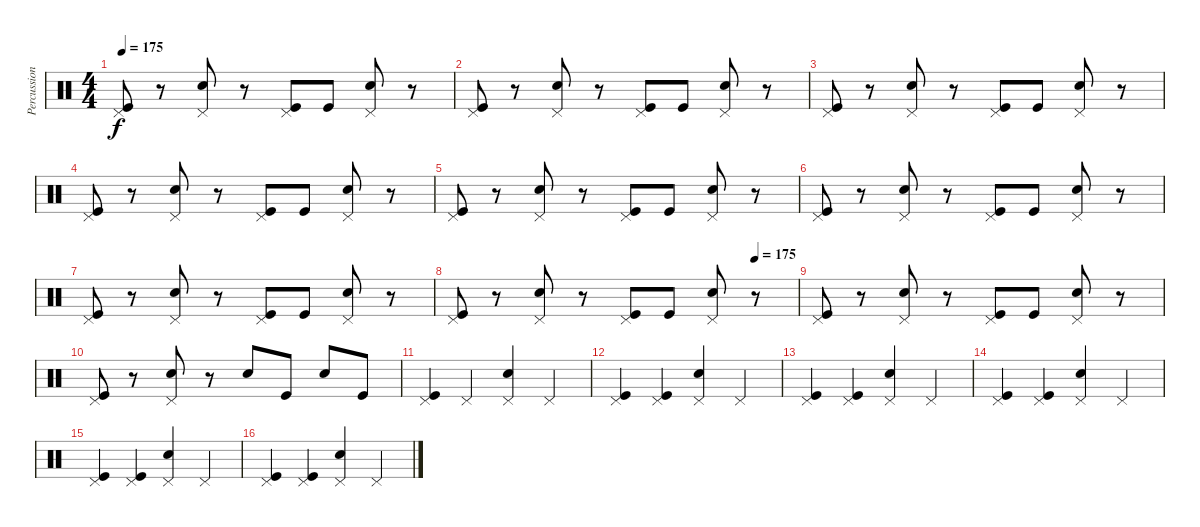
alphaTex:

\track ("Percussion" "Percussion") {instrument percussion}
\staff {score}
\articulation defaults
\ts (4 4)
\tempo 175
\clef neutral
\ks c
("Pedal Hi-Hat (hit)" "Kick (hit)").8{dy f} r.8 ("Pedal Hi-Hat (hit)" "Electric Snare (hit)").8 r.8 ("Pedal Hi-Hat (hit)" "Kick (hit)").8 "Kick (hit)".8 ("Pedal Hi-Hat (hit)" "Electric Snare (hit)").8 r.8 |
("Pedal Hi-Hat (hit)" "Kick (hit)").8 r.8 ("Pedal Hi-Hat (hit)" "Electric Snare (hit)").8 r.8 ("Pedal Hi-Hat (hit)" "Kick (hit)").8 "Kick (hit)".8 ("Pedal Hi-Hat (hit)" "Electric Snare (hit)").8 r.8 |
("Pedal Hi-Hat (hit)" "Kick (hit)").8 r.8 ("Pedal Hi-Hat (hit)" "Electric Snare (hit)").8 r.8 ("Pedal Hi-Hat (hit)" "Kick (hit)").8 "Kick (hit)".8 ("Pedal Hi-Hat (hit)" "Electric Snare (hit)").8 r.8 |
("Pedal Hi-Hat (hit)" "Kick (hit)").8 r.8 ("Pedal Hi-Hat (hit)" "Electric Snare (hit)").8 r.8 ("Pedal Hi-Hat (hit)" "Kick (hit)").8 "Kick (hit)".8 ("Pedal Hi-Hat (hit)" "Electric Snare (hit)").8 r.8 |
("Pedal Hi-Hat (hit)" "Kick (hit)").8 r.8 ("Pedal Hi-Hat (hit)" "Electric Snare (hit)").8 r.8 ("Pedal Hi-Hat (hit)" "Kick (hit)").8 "Kick (hit)".8 ("Pedal Hi-Hat (hit)" "Electric Snare (hit)").8 r.8 |
("Pedal Hi-Hat (hit)" "Kick (hit)").8 r.8 ("Pedal Hi-Hat (hit)" "Electric Snare (hit)").8 r.8 ("Pedal Hi-Hat (hit)" "Kick (hit)").8 "Kick (hit)".8 ("Pedal Hi-Hat (hit)" "Electric Snare (hit)").8 r.8 |
("Pedal Hi-Hat (hit)" "Kick (hit)").8 r.8 ("Pedal Hi-Hat (hit)" "Electric Snare (hit)").8 r.8 ("Pedal Hi-Hat (hit)" "Kick (hit)").8 "Kick (hit)".8 ("Pedal Hi-Hat (hit)" "Electric Snare (hit)").8 r.8 |
\tempo (175 0.875)
("Pedal Hi-Hat (hit)" "Kick (hit)").8 r.8 ("Pedal Hi-Hat (hit)" "Electric Snare (hit)").8 r.8 ("Pedal Hi-Hat (hit)" "Kick (hit)").8 "Kick (hit)".8 ("Pedal Hi-Hat (hit)" "Electric Snare (hit)").8 r.8 |
("Pedal Hi-Hat (hit)" "Kick (hit)").8 r.8 ("Pedal Hi-Hat (hit)" "Electric Snare (hit)").8 r.8 ("Pedal Hi-Hat (hit)" "Kick (hit)").8 "Kick (hit)".8 ("Pedal Hi-Hat (hit)" "Electric Snare (hit)").8 r.8 |
("Pedal Hi-Hat (hit)" "Kick (hit)").8 r.8 ("Pedal Hi-Hat (hit)" "Electric Snare (hit)").8 r.8 "Electric Snare (hit)".8 "Kick (hit)".8 "Electric Snare (hit)".8 "Kick (hit)".8 |
("Pedal Hi-Hat (hit)" "Kick (hit)").4 "Pedal Hi-Hat (hit)".4 ("Pedal Hi-Hat (hit)" "Electric Snare (hit)").4 "Pedal Hi-Hat (hit)".4 |
("Pedal Hi-Hat (hit)" "Kick (hit)").4 ("Pedal Hi-Hat (hit)" "Kick (hit)").4 ("Pedal Hi-Hat (hit)" "Electric Snare (hit)").4 "Pedal Hi-Hat (hit)".4 |
("Pedal Hi-Hat (hit)" "Kick (hit)").4 ("Pedal Hi-Hat (hit)" "Kick (hit)").4 ("Pedal Hi-Hat (hit)" "Electric Snare (hit)").4 "Pedal Hi-Hat (hit)".4 |
("Pedal Hi-Hat (hit)" "Kick (hit)").4 ("Pedal Hi-Hat (hit)" "Kick (hit)").4 ("Pedal Hi-Hat (hit)" "Electric Snare (hit)").4 "Pedal Hi-Hat (hit)".4 |
("Pedal Hi-Hat (hit)" "Kick (hit)").4 ("Pedal Hi-Hat (hit)" "Kick (hit)").4 ("Pedal Hi-Hat (hit)" "Electric Snare (hit)").4 "Pedal Hi-Hat (hit)".4 |
("Pedal Hi-Hat (hit)" "Kick (hit)").4 ("Pedal Hi-Hat (hit)" "Kick (hit)").4 ("Pedal Hi-Hat (hit)" "Electric Snare (hit)").4 "Pedal Hi-Hat (hit)".4
